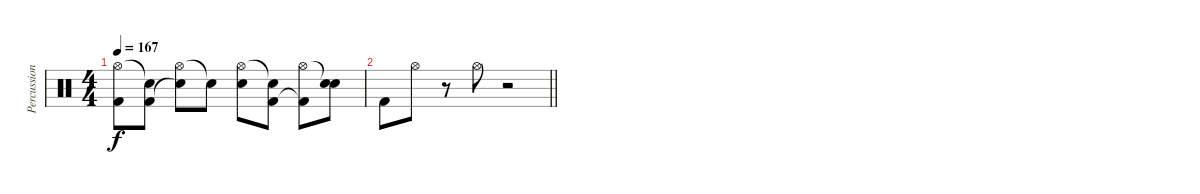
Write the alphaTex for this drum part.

\track ("Percussion" "Percussion") {instrument percussion}
\staff {score}
\articulation defaults
\ts (4 4)
\tempo 167
\clef neutral
\ks c
("Hi-Hat (open)" "Kick (hit) 2").8{dy f} ("Snare (hit)"{t} "Kick (hit) 2").8 ("Hi-Hat (open)" "Snare (hit)"{t}).8 "Snare (hit)"{t}.8 ("Hi-Hat (open)" "Electric Snare (hit)").8 ("Snare (hit)"{t} "Kick (hit) 2").8 ("Hi-Hat (open)" "Kick (hit) 2"{t}).8 ("Snare (hit)"{t} "Electric Snare (hit)").8 |
\barLineRight lightlight "Kick (hit) 2".8 "Hi-Hat (open)".8
r.8 "Hi-Hat (open)".8 r.2
